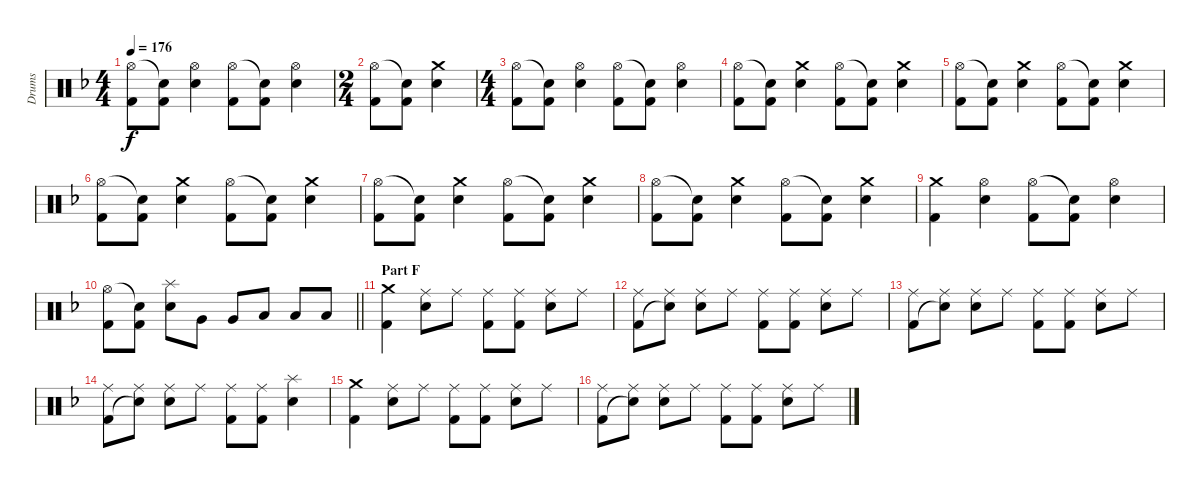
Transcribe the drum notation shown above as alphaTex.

\track ("Drums" "Drums") {instrument percussion}
\staff {score}
\articulation defaults
\ts (4 4)
\tempo 176
\clef neutral
\ks f
("Hi-Hat (open)" "Kick (hit) 2").8{dy f} ("Snare (hit)"{t} "Kick (hit) 2").8 ("Hi-Hat (open)" "Electric Snare (hit)").4 ("Hi-Hat (open)" "Kick (hit) 2").8 ("Snare (hit)"{t} "Kick (hit) 2").8 ("Hi-Hat (open)" "Electric Snare (hit)").4 |
\ts (2 4)
("Hi-Hat (open)" "Kick (hit) 2").8 ("Snare (hit)"{t} "Kick (hit) 2").8 ("Crash medium (hit)" "Electric Snare (hit)").4 |
\ts (4 4)
("Hi-Hat (open)" "Kick (hit) 2").8 ("Snare (hit)"{t} "Kick (hit) 2").8 ("Hi-Hat (open)" "Electric Snare (hit)").4 ("Hi-Hat (open)" "Kick (hit) 2").8 ("Snare (hit)"{t} "Kick (hit) 2").8 ("Hi-Hat (open)" "Electric Snare (hit)").4 |
("Hi-Hat (open)" "Kick (hit) 2").8 ("Snare (hit)"{t} "Kick (hit) 2").8 ("Crash medium (hit)" "Electric Snare (hit)").4 ("Hi-Hat (open)" "Kick (hit) 2").8 ("Snare (hit)"{t} "Kick (hit) 2").8 ("Crash medium (hit)" "Electric Snare (hit)").4 |
("Hi-Hat (open)" "Kick (hit) 2").8 ("Snare (hit)"{t} "Kick (hit) 2").8 ("Crash medium (hit)" "Electric Snare (hit)").4 ("Hi-Hat (open)" "Kick (hit) 2").8 ("Snare (hit)"{t} "Kick (hit) 2").8 ("Crash medium (hit)" "Electric Snare (hit)").4 |
("Hi-Hat (open)" "Kick (hit) 2").8 ("Snare (hit)"{t} "Kick (hit) 2").8 ("Crash medium (hit)" "Electric Snare (hit)").4 ("Hi-Hat (open)" "Kick (hit) 2").8 ("Snare (hit)"{t} "Kick (hit) 2").8 ("Crash medium (hit)" "Electric Snare (hit)").4 |
("Hi-Hat (open)" "Kick (hit) 2").8 ("Snare (hit)"{t} "Kick (hit) 2").8 ("Crash medium (hit)" "Electric Snare (hit)").4 ("Hi-Hat (open)" "Kick (hit) 2").8 ("Snare (hit)"{t} "Kick (hit) 2").8 ("Crash medium (hit)" "Electric Snare (hit)").4 |
("Hi-Hat (open)" "Kick (hit) 2").8 ("Snare (hit)"{t} "Kick (hit) 2").8 ("Crash medium (hit)" "Electric Snare (hit)").4 ("Hi-Hat (open)" "Kick (hit) 2").8 ("Snare (hit)"{t} "Kick (hit) 2").8 ("Crash medium (hit)" "Electric Snare (hit)").4 |
("Crash medium (hit)" "Kick (hit) 2").4 ("Hi-Hat (open)" "Electric Snare (hit)").4 ("Hi-Hat (open)" "Kick (hit) 2").8 ("Snare (hit)"{t} "Kick (hit) 2").8 ("Hi-Hat (open)" "Electric Snare (hit)").4 |
\barLineRight lightlight
("Hi-Hat (open)" "Kick (hit) 2").8 ("Snare (hit)"{t} "Kick (hit) 2").8 ("Splash (hit)" "Electric Snare (hit)").8 "Very Low Tom (hit)".8 "Very Low Tom (hit)".8 "Low Floor Tom (hit)".8 "Low Floor Tom (hit)".8 "Low Floor Tom (hit)".8 |
\section ("" "Part F")
("Crash medium (hit)" "Kick (hit) 2").4 ("Ride (middle)" "Electric Snare (hit)").8 "Ride (middle)".8 ("Ride (middle)" "Kick (hit) 2").8 ("Ride (middle)" "Kick (hit) 2").8 ("Ride (middle)" "Electric Snare (hit)").8 "Ride (middle)".8 |
("Ride (middle)" "Kick (hit) 2").8 ("Ride (middle)" "Snare (hit)"{t}).8 ("Ride (middle)" "Electric Snare (hit)").8 "Ride (middle)".8 ("Ride (middle)" "Kick (hit) 2").8 ("Ride (middle)" "Kick (hit) 2").8 ("Ride (middle)" "Electric Snare (hit)").8 "Ride (middle)".8 |
("Ride (middle)" "Kick (hit) 2").8 ("Ride (middle)" "Snare (hit)"{t}).8 ("Ride (middle)" "Electric Snare (hit)").8 "Ride (middle)".8 ("Ride (middle)" "Kick (hit) 2").8 ("Ride (middle)" "Kick (hit) 2").8 ("Ride (middle)" "Electric Snare (hit)").8 "Ride (middle)".8 |
("Ride (middle)" "Kick (hit) 2").8 ("Ride (middle)" "Snare (hit)"{t}).8 ("Ride (middle)" "Electric Snare (hit)").8 "Ride (middle)".8 ("Ride (middle)" "Kick (hit) 2").8 ("Ride (middle)" "Kick (hit) 2").8 ("Splash (hit)" "Electric Snare (hit)").4 |
("Crash medium (hit)" "Kick (hit) 2").4 ("Ride (middle)" "Electric Snare (hit)").8 "Ride (middle)".8 ("Ride (middle)" "Kick (hit) 2").8 ("Ride (middle)" "Kick (hit) 2").8 ("Ride (middle)" "Electric Snare (hit)").8 "Ride (middle)".8 |
("Ride (middle)" "Kick (hit) 2").8 ("Ride (middle)" "Snare (hit)"{t}).8 ("Ride (middle)" "Electric Snare (hit)").8 "Ride (middle)".8 ("Ride (middle)" "Kick (hit) 2").8 ("Ride (middle)" "Kick (hit) 2").8 ("Ride (middle)" "Electric Snare (hit)").8 "Ride (middle)".8
